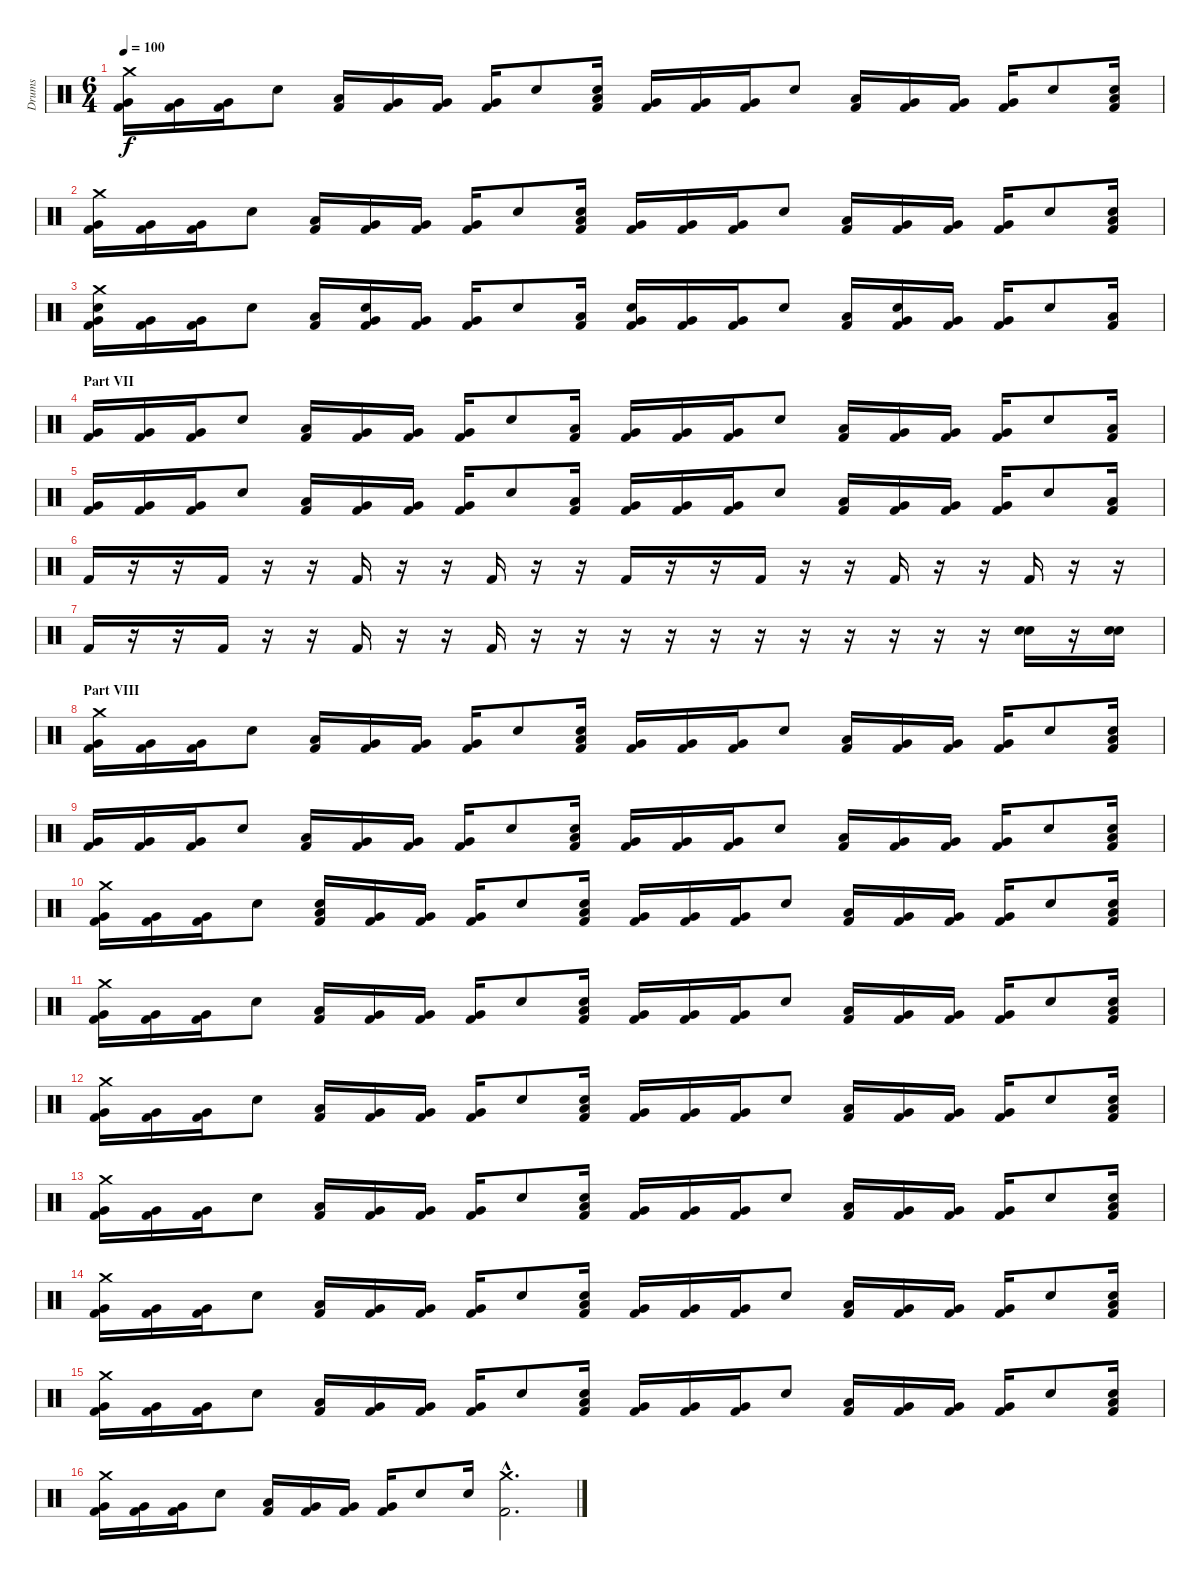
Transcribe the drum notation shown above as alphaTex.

\track ("Drums" "Drums") {instrument percussion}
\staff {score}
\articulation defaults
\ts (6 4)
\tempo 100
\clef neutral
\ks c
("Crash medium (hit)" "Very Low Tom (hit)" "Kick (hit) 2").16{dy f} ("Very Low Tom (hit)" "Kick (hit) 2").16 ("Very Low Tom (hit)" "Kick (hit) 2").16 "Electric Snare (hit)".8 ("Low Floor Tom (hit)" "Kick (hit) 2").16 ("Very Low Tom (hit)" "Kick (hit) 2").16 ("Very Low Tom (hit)" "Kick (hit) 2").16 ("Very Low Tom (hit)" "Kick (hit) 2").16 "Electric Snare (hit)".8 ("Electric Snare (hit)" "Low Floor Tom (hit)" "Kick (hit) 2").16 ("Very Low Tom (hit)" "Kick (hit) 2").16 ("Very Low Tom (hit)" "Kick (hit) 2").16 ("Very Low Tom (hit)" "Kick (hit) 2").16 "Electric Snare (hit)".8 ("Low Floor Tom (hit)" "Kick (hit) 2").16 ("Very Low Tom (hit)" "Kick (hit) 2").16 ("Very Low Tom (hit)" "Kick (hit) 2").16 ("Very Low Tom (hit)" "Kick (hit) 2").16 "Electric Snare (hit)".8 ("Electric Snare (hit)" "Low Floor Tom (hit)" "Kick (hit) 2").16 |
("Crash medium (hit)" "Very Low Tom (hit)" "Kick (hit) 2").16 ("Very Low Tom (hit)" "Kick (hit) 2").16 ("Very Low Tom (hit)" "Kick (hit) 2").16 "Electric Snare (hit)".8 ("Low Floor Tom (hit)" "Kick (hit) 2").16 ("Very Low Tom (hit)" "Kick (hit) 2").16 ("Very Low Tom (hit)" "Kick (hit) 2").16 ("Very Low Tom (hit)" "Kick (hit) 2").16 "Electric Snare (hit)".8 ("Electric Snare (hit)" "Low Floor Tom (hit)" "Kick (hit) 2").16 ("Very Low Tom (hit)" "Kick (hit) 2").16 ("Very Low Tom (hit)" "Kick (hit) 2").16 ("Very Low Tom (hit)" "Kick (hit) 2").16 "Electric Snare (hit)".8 ("Low Floor Tom (hit)" "Kick (hit) 2").16 ("Very Low Tom (hit)" "Kick (hit) 2").16 ("Very Low Tom (hit)" "Kick (hit) 2").16 ("Very Low Tom (hit)" "Kick (hit) 2").16 "Electric Snare (hit)".8 ("Electric Snare (hit)" "Low Floor Tom (hit)" "Kick (hit) 2").16 |
("Crash medium (hit)" "Electric Snare (hit)" "Very Low Tom (hit)" "Kick (hit) 2").16 ("Very Low Tom (hit)" "Kick (hit) 2").16 ("Very Low Tom (hit)" "Kick (hit) 2").16 "Electric Snare (hit)".8 ("Low Floor Tom (hit)" "Kick (hit) 2").16 ("Electric Snare (hit)" "Very Low Tom (hit)" "Kick (hit) 2").16 ("Very Low Tom (hit)" "Kick (hit) 2").16 ("Very Low Tom (hit)" "Kick (hit) 2").16 "Electric Snare (hit)".8 ("Low Floor Tom (hit)" "Kick (hit) 2").16 ("Electric Snare (hit)" "Very Low Tom (hit)" "Kick (hit) 2").16 ("Very Low Tom (hit)" "Kick (hit) 2").16 ("Very Low Tom (hit)" "Kick (hit) 2").16 "Electric Snare (hit)".8 ("Low Floor Tom (hit)" "Kick (hit) 2").16 ("Electric Snare (hit)" "Very Low Tom (hit)" "Kick (hit) 2").16 ("Very Low Tom (hit)" "Kick (hit) 2").16 ("Very Low Tom (hit)" "Kick (hit) 2").16 "Electric Snare (hit)".8 ("Low Floor Tom (hit)" "Kick (hit) 2").16 |
\section ("" "Part VII")
("Very Low Tom (hit)" "Kick (hit) 2").16 ("Very Low Tom (hit)" "Kick (hit) 2").16 ("Very Low Tom (hit)" "Kick (hit) 2").16 "Electric Snare (hit)".8 ("Low Floor Tom (hit)" "Kick (hit) 2").16 ("Very Low Tom (hit)" "Kick (hit) 2").16 ("Very Low Tom (hit)" "Kick (hit) 2").16 ("Very Low Tom (hit)" "Kick (hit) 2").16 "Electric Snare (hit)".8 ("Low Floor Tom (hit)" "Kick (hit) 2").16 ("Very Low Tom (hit)" "Kick (hit) 2").16 ("Very Low Tom (hit)" "Kick (hit) 2").16 ("Very Low Tom (hit)" "Kick (hit) 2").16 "Electric Snare (hit)".8 ("Low Floor Tom (hit)" "Kick (hit) 2").16 ("Very Low Tom (hit)" "Kick (hit) 2").16 ("Very Low Tom (hit)" "Kick (hit) 2").16 ("Very Low Tom (hit)" "Kick (hit) 2").16 "Electric Snare (hit)".8 ("Low Floor Tom (hit)" "Kick (hit) 2").16 |
("Very Low Tom (hit)" "Kick (hit) 2").16 ("Very Low Tom (hit)" "Kick (hit) 2").16 ("Very Low Tom (hit)" "Kick (hit) 2").16 "Electric Snare (hit)".8 ("Low Floor Tom (hit)" "Kick (hit) 2").16 ("Very Low Tom (hit)" "Kick (hit) 2").16 ("Very Low Tom (hit)" "Kick (hit) 2").16 ("Very Low Tom (hit)" "Kick (hit) 2").16 "Electric Snare (hit)".8 ("Low Floor Tom (hit)" "Kick (hit) 2").16 ("Very Low Tom (hit)" "Kick (hit) 2").16 ("Very Low Tom (hit)" "Kick (hit) 2").16 ("Very Low Tom (hit)" "Kick (hit) 2").16 "Electric Snare (hit)".8 ("Low Floor Tom (hit)" "Kick (hit) 2").16 ("Very Low Tom (hit)" "Kick (hit) 2").16 ("Very Low Tom (hit)" "Kick (hit) 2").16 ("Very Low Tom (hit)" "Kick (hit) 2").16 "Electric Snare (hit)".8 ("Low Floor Tom (hit)" "Kick (hit) 2").16 |
"Kick (hit) 2".16 r.16 r.16 "Kick (hit) 2".16 r.16 r.16 "Kick (hit) 2".16 r.16 r.16 "Kick (hit) 2".16 r.16 r.16 "Kick (hit) 2".16 r.16 r.16 "Kick (hit) 2".16 r.16 r.16 "Kick (hit) 2".16 r.16 r.16 "Kick (hit) 2".16 r.16 r.16 |
"Kick (hit) 2".16 r.16 r.16 "Kick (hit) 2".16 r.16 r.16 "Kick (hit) 2".16 r.16 r.16 "Kick (hit) 2".16 r.16 r.16 r.16 r.16 r.16 r.16 r.16 r.16 r.16 r.16 r.16 ("Electric Snare (hit)" "Electric Snare (hit)").16 r.16 ("Electric Snare (hit)" "Electric Snare (hit)").16 |
\section ("" "Part VIII")
("Crash medium (hit)" "Very Low Tom (hit)" "Kick (hit) 2").16 ("Very Low Tom (hit)" "Kick (hit) 2").16 ("Very Low Tom (hit)" "Kick (hit) 2").16 "Electric Snare (hit)".8 ("Low Floor Tom (hit)" "Kick (hit) 2").16 ("Very Low Tom (hit)" "Kick (hit) 2").16 ("Very Low Tom (hit)" "Kick (hit) 2").16 ("Very Low Tom (hit)" "Kick (hit) 2").16 "Electric Snare (hit)".8 ("Electric Snare (hit)" "Low Floor Tom (hit)" "Kick (hit) 2").16 ("Very Low Tom (hit)" "Kick (hit) 2").16 ("Very Low Tom (hit)" "Kick (hit) 2").16 ("Very Low Tom (hit)" "Kick (hit) 2").16 "Electric Snare (hit)".8 ("Low Floor Tom (hit)" "Kick (hit) 2").16 ("Very Low Tom (hit)" "Kick (hit) 2").16 ("Very Low Tom (hit)" "Kick (hit) 2").16 ("Very Low Tom (hit)" "Kick (hit) 2").16 "Electric Snare (hit)".8 ("Electric Snare (hit)" "Low Floor Tom (hit)" "Kick (hit) 2").16 |
("Very Low Tom (hit)" "Kick (hit) 2").16 ("Very Low Tom (hit)" "Kick (hit) 2").16 ("Very Low Tom (hit)" "Kick (hit) 2").16 "Electric Snare (hit)".8 ("Low Floor Tom (hit)" "Kick (hit) 2").16 ("Very Low Tom (hit)" "Kick (hit) 2").16 ("Very Low Tom (hit)" "Kick (hit) 2").16 ("Very Low Tom (hit)" "Kick (hit) 2").16 "Electric Snare (hit)".8 ("Electric Snare (hit)" "Low Floor Tom (hit)" "Kick (hit) 2").16 ("Very Low Tom (hit)" "Kick (hit) 2").16 ("Very Low Tom (hit)" "Kick (hit) 2").16 ("Very Low Tom (hit)" "Kick (hit) 2").16 "Electric Snare (hit)".8 ("Low Floor Tom (hit)" "Kick (hit) 2").16 ("Very Low Tom (hit)" "Kick (hit) 2").16 ("Very Low Tom (hit)" "Kick (hit) 2").16 ("Very Low Tom (hit)" "Kick (hit) 2").16 "Electric Snare (hit)".8 ("Electric Snare (hit)" "Low Floor Tom (hit)" "Kick (hit) 2").16 |
("Crash medium (hit)" "Very Low Tom (hit)" "Kick (hit) 2").16 ("Very Low Tom (hit)" "Kick (hit) 2").16 ("Very Low Tom (hit)" "Kick (hit) 2").16 "Electric Snare (hit)".8 ("Electric Snare (hit)" "Low Floor Tom (hit)" "Kick (hit) 2").16 ("Very Low Tom (hit)" "Kick (hit) 2").16 ("Very Low Tom (hit)" "Kick (hit) 2").16 ("Very Low Tom (hit)" "Kick (hit) 2").16 "Electric Snare (hit)".8 ("Electric Snare (hit)" "Low Floor Tom (hit)" "Kick (hit) 2").16 ("Very Low Tom (hit)" "Kick (hit) 2").16 ("Very Low Tom (hit)" "Kick (hit) 2").16 ("Very Low Tom (hit)" "Kick (hit) 2").16 "Electric Snare (hit)".8 ("Low Floor Tom (hit)" "Kick (hit) 2").16 ("Very Low Tom (hit)" "Kick (hit) 2").16 ("Very Low Tom (hit)" "Kick (hit) 2").16 ("Very Low Tom (hit)" "Kick (hit) 2").16 "Electric Snare (hit)".8 ("Electric Snare (hit)" "Low Floor Tom (hit)" "Kick (hit) 2").16 |
("Crash medium (hit)" "Very Low Tom (hit)" "Kick (hit) 2").16 ("Very Low Tom (hit)" "Kick (hit) 2").16 ("Very Low Tom (hit)" "Kick (hit) 2").16 "Electric Snare (hit)".8 ("Low Floor Tom (hit)" "Kick (hit) 2").16 ("Very Low Tom (hit)" "Kick (hit) 2").16 ("Very Low Tom (hit)" "Kick (hit) 2").16 ("Very Low Tom (hit)" "Kick (hit) 2").16 "Electric Snare (hit)".8 ("Electric Snare (hit)" "Low Floor Tom (hit)" "Kick (hit) 2").16 ("Very Low Tom (hit)" "Kick (hit) 2").16 ("Very Low Tom (hit)" "Kick (hit) 2").16 ("Very Low Tom (hit)" "Kick (hit) 2").16 "Electric Snare (hit)".8 ("Low Floor Tom (hit)" "Kick (hit) 2").16 ("Very Low Tom (hit)" "Kick (hit) 2").16 ("Very Low Tom (hit)" "Kick (hit) 2").16 ("Very Low Tom (hit)" "Kick (hit) 2").16 "Electric Snare (hit)".8 ("Electric Snare (hit)" "Low Floor Tom (hit)" "Kick (hit) 2").16 |
("Crash medium (hit)" "Very Low Tom (hit)" "Kick (hit) 2").16 ("Very Low Tom (hit)" "Kick (hit) 2").16 ("Very Low Tom (hit)" "Kick (hit) 2").16 "Electric Snare (hit)".8 ("Low Floor Tom (hit)" "Kick (hit) 2").16 ("Very Low Tom (hit)" "Kick (hit) 2").16 ("Very Low Tom (hit)" "Kick (hit) 2").16 ("Very Low Tom (hit)" "Kick (hit) 2").16 "Electric Snare (hit)".8 ("Electric Snare (hit)" "Low Floor Tom (hit)" "Kick (hit) 2").16 ("Very Low Tom (hit)" "Kick (hit) 2").16 ("Very Low Tom (hit)" "Kick (hit) 2").16 ("Very Low Tom (hit)" "Kick (hit) 2").16 "Electric Snare (hit)".8 ("Low Floor Tom (hit)" "Kick (hit) 2").16 ("Very Low Tom (hit)" "Kick (hit) 2").16 ("Very Low Tom (hit)" "Kick (hit) 2").16 ("Very Low Tom (hit)" "Kick (hit) 2").16 "Electric Snare (hit)".8 ("Electric Snare (hit)" "Low Floor Tom (hit)" "Kick (hit) 2").16 |
("Crash medium (hit)" "Very Low Tom (hit)" "Kick (hit) 2").16 ("Very Low Tom (hit)" "Kick (hit) 2").16 ("Very Low Tom (hit)" "Kick (hit) 2").16 "Electric Snare (hit)".8 ("Low Floor Tom (hit)" "Kick (hit) 2").16 ("Very Low Tom (hit)" "Kick (hit) 2").16 ("Very Low Tom (hit)" "Kick (hit) 2").16 ("Very Low Tom (hit)" "Kick (hit) 2").16 "Electric Snare (hit)".8 ("Electric Snare (hit)" "Low Floor Tom (hit)" "Kick (hit) 2").16 ("Very Low Tom (hit)" "Kick (hit) 2").16 ("Very Low Tom (hit)" "Kick (hit) 2").16 ("Very Low Tom (hit)" "Kick (hit) 2").16 "Electric Snare (hit)".8 ("Low Floor Tom (hit)" "Kick (hit) 2").16 ("Very Low Tom (hit)" "Kick (hit) 2").16 ("Very Low Tom (hit)" "Kick (hit) 2").16 ("Very Low Tom (hit)" "Kick (hit) 2").16 "Electric Snare (hit)".8 ("Electric Snare (hit)" "Low Floor Tom (hit)" "Kick (hit) 2").16 |
("Crash medium (hit)" "Very Low Tom (hit)" "Kick (hit) 2").16 ("Very Low Tom (hit)" "Kick (hit) 2").16 ("Very Low Tom (hit)" "Kick (hit) 2").16 "Electric Snare (hit)".8 ("Low Floor Tom (hit)" "Kick (hit) 2").16 ("Very Low Tom (hit)" "Kick (hit) 2").16 ("Very Low Tom (hit)" "Kick (hit) 2").16 ("Very Low Tom (hit)" "Kick (hit) 2").16 "Electric Snare (hit)".8 ("Electric Snare (hit)" "Low Floor Tom (hit)" "Kick (hit) 2").16 ("Very Low Tom (hit)" "Kick (hit) 2").16 ("Very Low Tom (hit)" "Kick (hit) 2").16 ("Very Low Tom (hit)" "Kick (hit) 2").16 "Electric Snare (hit)".8 ("Low Floor Tom (hit)" "Kick (hit) 2").16 ("Very Low Tom (hit)" "Kick (hit) 2").16 ("Very Low Tom (hit)" "Kick (hit) 2").16 ("Very Low Tom (hit)" "Kick (hit) 2").16 "Electric Snare (hit)".8 ("Electric Snare (hit)" "Low Floor Tom (hit)" "Kick (hit) 2").16 |
("Crash medium (hit)" "Very Low Tom (hit)" "Kick (hit) 2").16 ("Very Low Tom (hit)" "Kick (hit) 2").16 ("Very Low Tom (hit)" "Kick (hit) 2").16 "Electric Snare (hit)".8 ("Low Floor Tom (hit)" "Kick (hit) 2").16 ("Very Low Tom (hit)" "Kick (hit) 2").16 ("Very Low Tom (hit)" "Kick (hit) 2").16 ("Very Low Tom (hit)" "Kick (hit) 2").16 "Electric Snare (hit)".8 ("Electric Snare (hit)" "Low Floor Tom (hit)" "Kick (hit) 2").16 ("Very Low Tom (hit)" "Kick (hit) 2").16 ("Very Low Tom (hit)" "Kick (hit) 2").16 ("Very Low Tom (hit)" "Kick (hit) 2").16 "Electric Snare (hit)".8 ("Low Floor Tom (hit)" "Kick (hit) 2").16 ("Very Low Tom (hit)" "Kick (hit) 2").16 ("Very Low Tom (hit)" "Kick (hit) 2").16 ("Very Low Tom (hit)" "Kick (hit) 2").16 "Electric Snare (hit)".8 ("Electric Snare (hit)" "Low Floor Tom (hit)" "Kick (hit) 2").16 |
("Crash medium (hit)" "Very Low Tom (hit)" "Kick (hit) 2").16 ("Very Low Tom (hit)" "Kick (hit) 2").16 ("Very Low Tom (hit)" "Kick (hit) 2").16 "Electric Snare (hit)".8 ("Low Floor Tom (hit)" "Kick (hit) 2").16 ("Very Low Tom (hit)" "Kick (hit) 2").16 ("Very Low Tom (hit)" "Kick (hit) 2").16 ("Very Low Tom (hit)" "Kick (hit) 2").16 "Electric Snare (hit)".8 "Electric Snare (hit)".16 ("Crash medium (hit)"{hac} "Kick (hit) 2"{hac}).2{d}
